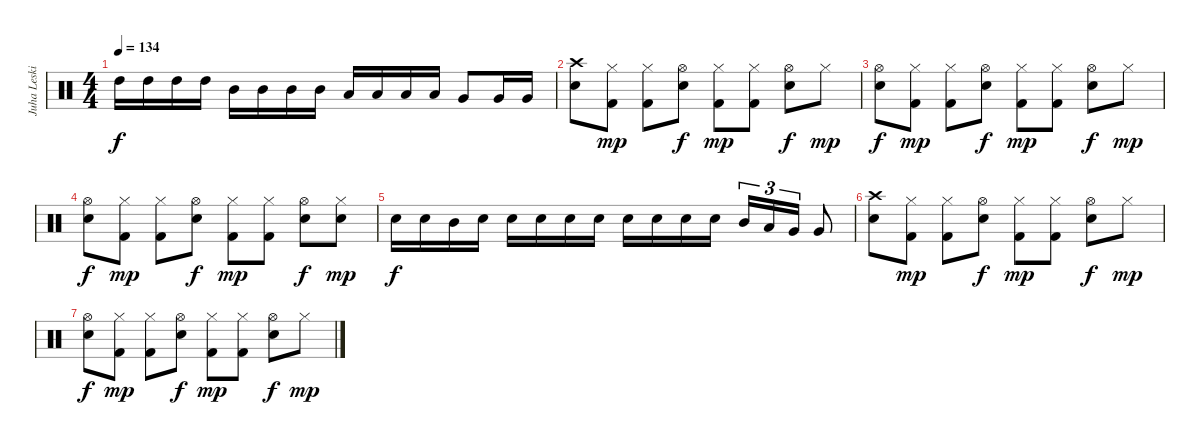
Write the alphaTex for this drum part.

\track ("Juha Leskinen - Drums" "Juha Leski") {instrument percussion}
\staff {score}
\articulation defaults
\ts (4 4)
\tempo 134
\clef neutral
\ks c "High Tom (hit)".16{dy f} "High Tom (hit)".16 "High Tom (hit)".16 "High Tom (hit)".16 "Mid Tom (hit)".16 "Mid Tom (hit)".16 "Mid Tom (hit)".16 "Mid Tom (hit)".16 "Low Tom (hit)".16 "Low Tom (hit)".16 "Low Tom (hit)".16 "Low Tom (hit)".16 "Very Low Tom (hit)".8 "Very Low Tom (hit)".16 "Very Low Tom (hit)".16
|
("Crash high (hit)" "Electric Snare (hit)").8 ("Hi-Hat (closed)" "Kick (hit) 2").8{dy mp} ("Hi-Hat (closed)" "Kick (hit) 2").8 ("Hi-Hat (open)" "Electric Snare (hit)").8{dy f} ("Hi-Hat (closed)" "Kick (hit) 2").8{dy mp} ("Hi-Hat (closed)" "Kick (hit) 2").8 ("Hi-Hat (open)" "Electric Snare (hit)").8{dy f} "Hi-Hat (closed)".8{dy mp} |
("Hi-Hat (open)" "Electric Snare (hit)").8{dy f} ("Hi-Hat (closed)" "Kick (hit) 2").8{dy mp} ("Hi-Hat (closed)" "Kick (hit) 2").8 ("Hi-Hat (open)" "Electric Snare (hit)").8{dy f} ("Hi-Hat (closed)" "Kick (hit) 2").8{dy mp} ("Hi-Hat (closed)" "Kick (hit) 2").8 ("Hi-Hat (open)" "Electric Snare (hit)").8{dy f} "Hi-Hat (closed)".8{dy mp} |
("Hi-Hat (open)" "Electric Snare (hit)").8{dy f} ("Hi-Hat (closed)" "Kick (hit) 2").8{dy mp} ("Hi-Hat (closed)" "Kick (hit) 2").8 ("Hi-Hat (open)" "Electric Snare (hit)").8{dy f} ("Hi-Hat (closed)" "Kick (hit) 2").8{dy mp} ("Hi-Hat (closed)" "Kick (hit) 2").8 ("Hi-Hat (open)" "Electric Snare (hit)").8{dy f} ("Hi-Hat (closed)" "Electric Snare (hit)").8{dy mp} |
"Electric Snare (hit)".16{dy f} "Electric Snare (hit)".16 "Mid Tom (hit)".16 "Electric Snare (hit)".16 "Electric Snare (hit)".16 "Electric Snare (hit)".16 "Electric Snare (hit)".16 "Electric Snare (hit)".16 "Electric Snare (hit)".16 "Electric Snare (hit)".16 "Electric Snare (hit)".16 "Electric Snare (hit)".16 "Mid Tom (hit)".16{tu (3 2)} "Low Tom (hit)".16{tu (3 2)} "Very Low Tom (hit)".16{tu (3 2)} "Very Low Tom (hit)".8 |
("Crash high (hit)" "Electric Snare (hit)").8 ("Hi-Hat (closed)" "Kick (hit) 2").8{dy mp} ("Hi-Hat (closed)" "Kick (hit) 2").8 ("Hi-Hat (open)" "Electric Snare (hit)").8{dy f} ("Hi-Hat (closed)" "Kick (hit) 2").8{dy mp} ("Hi-Hat (closed)" "Kick (hit) 2").8 ("Hi-Hat (open)" "Electric Snare (hit)").8{dy f} "Hi-Hat (closed)".8{dy mp} |
("Hi-Hat (open)" "Electric Snare (hit)").8{dy f} ("Hi-Hat (closed)" "Kick (hit) 2").8{dy mp} ("Hi-Hat (closed)" "Kick (hit) 2").8 ("Hi-Hat (open)" "Electric Snare (hit)").8{dy f} ("Hi-Hat (closed)" "Kick (hit) 2").8{dy mp} ("Hi-Hat (closed)" "Kick (hit) 2").8 ("Hi-Hat (open)" "Electric Snare (hit)").8{dy f} "Hi-Hat (closed)".8{dy mp}
